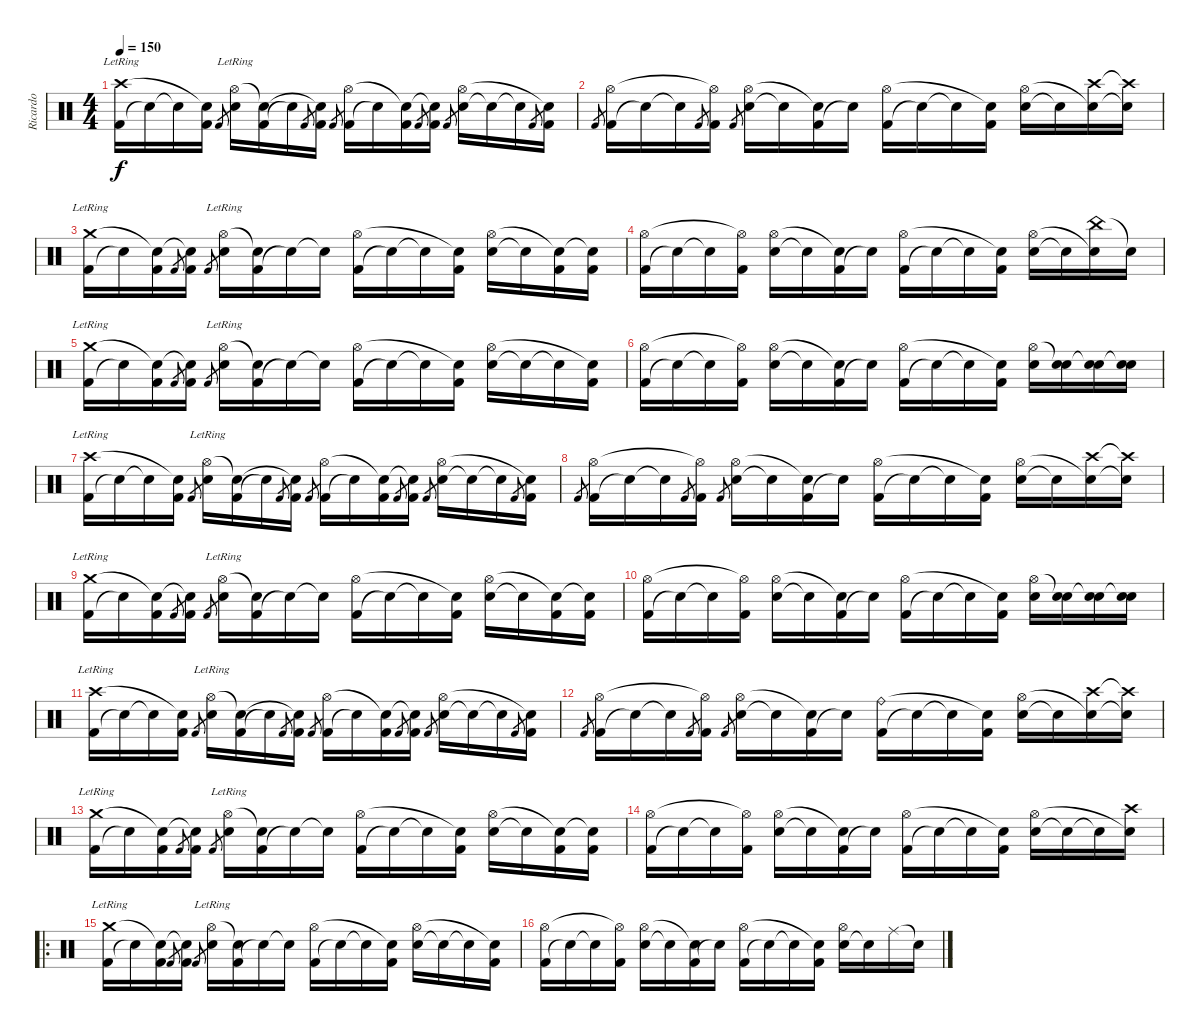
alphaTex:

\track ("Ricardo" "Ricardo") {instrument percussion}
\staff {score}
\articulation defaults
\ts (4 4)
\tempo 150
\clef neutral
\ks c
("Kick (hit) 2" "Crash high (hit)"{lr}).16{dy f} "Snare (hit)"{t}.16 "Snare (hit)"{t}.16 ("Kick (hit) 2" "Snare (hit)"{t}).16 "Kick (hit) 2".8{gr} ("Snare (hit) 2" "Hi-Hat (open)"{lr}).16 ("Kick (hit) 2" "Snare (hit)"{t}).16 "Snare (hit)"{t}.16 "Kick (hit) 2".8{gr} ("Kick (hit) 2" "Snare (hit)"{t}).16 "Kick (hit) 2".8{gr} ("Kick (hit) 2" "Hi-Hat (open)").16 "Snare (hit)"{t}.16 ("Kick (hit) 2" "Snare (hit)"{t}).16 "Kick (hit) 2".8{gr} ("Kick (hit) 2" "Snare (hit)"{t}).16 "Kick (hit) 2".8{gr} ("Snare (hit) 2" "Hi-Hat (open)").16 "Snare (hit)"{t}.16 "Snare (hit)"{t}.16 "Kick (hit) 2".8{gr} ("Kick (hit) 2" "Snare (hit)"{t}).16 |
"Kick (hit) 2".8{gr} ("Kick (hit) 2" "Hi-Hat (open)").16 "Snare (hit)"{t}.16 "Snare (hit)"{t}.16 "Kick (hit) 2".8{gr} ("Kick (hit) 2" "Hi-Hat (open)"{t}).16 "Kick (hit) 2".8{gr} ("Snare (hit) 2" "Hi-Hat (open)").16 "Snare (hit)"{t}.16 ("Kick (hit) 2" "Snare (hit)"{t}).16 "Snare (hit)"{t}.16 ("Kick (hit) 2" "Hi-Hat (open)").16 "Snare (hit)"{t}.16 "Snare (hit)"{t}.16 ("Kick (hit) 2" "Snare (hit)"{t}).16 ("Snare (hit) 2" "Hi-Hat (open)").16 "Snare (hit)"{t}.16 ("Crash high (hit)" "Snare (hit)"{t}).16 ("Crash high (hit)"{t} "Snare (hit)"{t}).16 |
("Kick (hit) 2" "Crash medium (hit)"{lr}).16 "Snare (hit)"{t}.16 ("Kick (hit) 2" "Snare (hit)"{t}).16 "Kick (hit) 2".8{gr} ("Kick (hit) 2" "Snare (hit)"{t}).16 "Kick (hit) 2".8{gr} ("Snare (hit) 2" "Hi-Hat (open)"{lr}).16 ("Kick (hit) 2" "Snare (hit)"{t}).16 "Snare (hit)"{t}.16 "Snare (hit)"{t}.16 ("Kick (hit) 2" "Hi-Hat (open)").16 "Snare (hit)"{t}.16 "Snare (hit)"{t}.16 ("Kick (hit) 2" "Snare (hit)"{t}).16 ("Snare (hit) 2" "Hi-Hat (open)").16 "Snare (hit)"{t}.16 ("Kick (hit) 2" "Snare (hit)"{t}).16 ("Kick (hit) 2" "Snare (hit)"{t}).16 |
("Kick (hit) 2" "Hi-Hat (open)").16 "Snare (hit)"{t}.16 "Snare (hit)"{t}.16 ("Kick (hit) 2" "Hi-Hat (open)"{t}).16 ("Snare (hit) 2" "Hi-Hat (open)").16 "Snare (hit)"{t}.16 ("Kick (hit) 2" "Snare (hit)"{t}).16 "Snare (hit)"{t}.16 ("Kick (hit) 2" "Hi-Hat (open)").16 "Snare (hit)"{t}.16 "Snare (hit)"{t}.16 ("Kick (hit) 2" "Snare (hit)"{t}).16 ("Snare (hit) 2" "Hi-Hat (open)").16 "Snare (hit)"{t}.16 ("China (hit)" "Snare (hit)"{t}).16 "Snare (hit)"{t}.16 |
("Kick (hit) 2" "Crash medium (hit)"{lr}).16 "Snare (hit)"{t}.16 ("Kick (hit) 2" "Snare (hit)"{t}).16 "Kick (hit) 2".8{gr} ("Kick (hit) 2" "Snare (hit)"{t}).16 "Kick (hit) 2".8{gr} ("Snare (hit) 2" "Hi-Hat (open)"{lr}).16 ("Kick (hit) 2" "Snare (hit)"{t}).16 "Snare (hit)"{t}.16 "Snare (hit)"{t}.16 ("Kick (hit) 2" "Hi-Hat (open)").16 "Snare (hit)"{t}.16 "Snare (hit)"{t}.16 ("Kick (hit) 2" "Snare (hit)"{t}).16 ("Snare (hit) 2" "Hi-Hat (open)").16 "Snare (hit)"{t}.16 "Snare (hit)"{t}.16 ("Kick (hit) 2" "Snare (hit)"{t}).16 |
("Kick (hit) 2" "Hi-Hat (open)").16 "Snare (hit)"{t}.16 "Snare (hit)"{t}.16 ("Kick (hit) 2" "Hi-Hat (open)"{t}).16 ("Snare (hit) 2" "Hi-Hat (open)").16 "Snare (hit)"{t}.16 ("Kick (hit) 2" "Snare (hit)"{t}).16 "Snare (hit)"{t}.16 ("Kick (hit) 2" "Hi-Hat (open)").16 "Snare (hit)"{t}.16 "Snare (hit)"{t}.16 ("Kick (hit) 2" "Snare (hit)"{t}).16 ("Snare (hit) 2" "Hi-Hat (open)").16 ("Snare (hit) 2" "Snare (hit)"{t}).16 ("Snare (hit) 2" "Snare (hit)"{t}).16 ("Snare (hit) 2" "Snare (hit)"{t}).16 |
("Kick (hit) 2" "Crash high (hit)"{lr}).16 "Snare (hit)"{t}.16 "Snare (hit)"{t}.16 ("Kick (hit) 2" "Snare (hit)"{t}).16 "Kick (hit) 2".8{gr} ("Snare (hit) 2" "Hi-Hat (open)"{lr}).16 ("Kick (hit) 2" "Snare (hit)"{t}).16 "Snare (hit)"{t}.16 "Kick (hit) 2".8{gr} ("Kick (hit) 2" "Snare (hit)"{t}).16 "Kick (hit) 2".8{gr} ("Kick (hit) 2" "Hi-Hat (open)").16 "Snare (hit)"{t}.16 ("Kick (hit) 2" "Snare (hit)"{t}).16 "Kick (hit) 2".8{gr} ("Kick (hit) 2" "Snare (hit)"{t}).16 "Kick (hit) 2".8{gr} ("Snare (hit) 2" "Hi-Hat (open)").16 "Snare (hit)"{t}.16 "Snare (hit)"{t}.16 "Kick (hit) 2".8{gr} ("Kick (hit) 2" "Snare (hit)"{t}).16 |
"Kick (hit) 2".8{gr} ("Kick (hit) 2" "Hi-Hat (open)").16 "Snare (hit)"{t}.16 "Snare (hit)"{t}.16 "Kick (hit) 2".8{gr} ("Kick (hit) 2" "Hi-Hat (open)"{t}).16 "Kick (hit) 2".8{gr} ("Snare (hit) 2" "Hi-Hat (open)").16 "Snare (hit)"{t}.16 ("Kick (hit) 2" "Snare (hit)"{t}).16 "Snare (hit)"{t}.16 ("Kick (hit) 2" "Hi-Hat (open)").16 "Snare (hit)"{t}.16 "Snare (hit)"{t}.16 ("Kick (hit) 2" "Snare (hit)"{t}).16 ("Snare (hit) 2" "Hi-Hat (open)").16 "Snare (hit)"{t}.16 ("Crash high (hit)" "Snare (hit)"{t}).16 ("Crash high (hit)"{t} "Snare (hit)"{t}).16 |
("Kick (hit) 2" "Crash medium (hit)"{lr}).16 "Snare (hit)"{t}.16 ("Kick (hit) 2" "Snare (hit)"{t}).16 "Kick (hit) 2".8{gr} ("Kick (hit) 2" "Snare (hit)"{t}).16 "Kick (hit) 2".8{gr} ("Snare (hit) 2" "Hi-Hat (open)"{lr}).16 ("Kick (hit) 2" "Snare (hit)"{t}).16 "Snare (hit)"{t}.16 "Snare (hit)"{t}.16 ("Kick (hit) 2" "Hi-Hat (open)").16 "Snare (hit)"{t}.16 "Snare (hit)"{t}.16 ("Kick (hit) 2" "Snare (hit)"{t}).16 ("Snare (hit) 2" "Hi-Hat (open)").16 "Snare (hit)"{t}.16 ("Kick (hit) 2" "Snare (hit)"{t}).16 ("Kick (hit) 2" "Snare (hit)"{t}).16 |
("Kick (hit) 2" "Hi-Hat (open)").16 "Snare (hit)"{t}.16 "Snare (hit)"{t}.16 ("Kick (hit) 2" "Hi-Hat (open)"{t}).16 ("Snare (hit) 2" "Hi-Hat (open)").16 "Snare (hit)"{t}.16 ("Kick (hit) 2" "Snare (hit)"{t}).16 "Snare (hit)"{t}.16 ("Kick (hit) 2" "Hi-Hat (open)").16 "Snare (hit)"{t}.16 "Snare (hit)"{t}.16 ("Kick (hit) 2" "Snare (hit)"{t}).16 ("Snare (hit) 2" "Hi-Hat (open)").16 ("Snare (hit) 2" "Snare (hit)"{t}).16 ("Snare (hit) 2" "Snare (hit)"{t}).16 ("Snare (hit) 2" "Snare (hit)"{t}).16 |
("Kick (hit) 2" "Crash high (hit)"{lr}).16 "Snare (hit)"{t}.16 "Snare (hit)"{t}.16 ("Kick (hit) 2" "Snare (hit)"{t}).16 "Kick (hit) 2".8{gr} ("Snare (hit) 2" "Hi-Hat (open)"{lr}).16 ("Kick (hit) 2" "Snare (hit)"{t}).16 "Snare (hit)"{t}.16 "Kick (hit) 2".8{gr} ("Kick (hit) 2" "Snare (hit)"{t}).16 "Kick (hit) 2".8{gr} ("Kick (hit) 2" "Hi-Hat (open)").16 "Snare (hit)"{t}.16 ("Kick (hit) 2" "Snare (hit)"{t}).16 "Kick (hit) 2".8{gr} ("Kick (hit) 2" "Snare (hit)"{t}).16 "Kick (hit) 2".8{gr} ("Snare (hit) 2" "Hi-Hat (open)").16 "Snare (hit)"{t}.16 "Snare (hit)"{t}.16 "Kick (hit) 2".8{gr} ("Kick (hit) 2" "Snare (hit)"{t}).16 |
"Kick (hit) 2".8{gr} ("Kick (hit) 2" "Hi-Hat (open)").16 "Snare (hit)"{t}.16 "Snare (hit)"{t}.16 "Kick (hit) 2".8{gr} ("Kick (hit) 2" "Hi-Hat (open)"{t}).16 "Kick (hit) 2".8{gr} ("Snare (hit) 2" "Hi-Hat (open)").16 "Snare (hit)"{t}.16 ("Kick (hit) 2" "Snare (hit)"{t}).16 "Snare (hit)"{t}.16 ("Kick (hit) 2" "Ride (bell)").16 "Snare (hit)"{t}.16 "Snare (hit)"{t}.16 ("Kick (hit) 2" "Snare (hit)"{t}).16 ("Snare (hit) 2" "Hi-Hat (open)").16 "Snare (hit)"{t}.16 ("Crash high (hit)" "Snare (hit)"{t}).16 ("Crash high (hit)"{t} "Snare (hit)"{t}).16 |
("Kick (hit) 2" "Crash medium (hit)"{lr}).16 "Snare (hit)"{t}.16 ("Kick (hit) 2" "Snare (hit)"{t}).16 "Kick (hit) 2".8{gr} ("Kick (hit) 2" "Snare (hit)"{t}).16 "Kick (hit) 2".8{gr} ("Snare (hit) 2" "Hi-Hat (open)"{lr}).16 ("Kick (hit) 2" "Snare (hit)"{t}).16 "Snare (hit)"{t}.16 "Snare (hit)"{t}.16 ("Kick (hit) 2" "Hi-Hat (open)").16 "Snare (hit)"{t}.16 "Snare (hit)"{t}.16 ("Kick (hit) 2" "Snare (hit)"{t}).16 ("Snare (hit) 2" "Hi-Hat (open)").16 "Snare (hit)"{t}.16 ("Kick (hit) 2" "Snare (hit)"{t}).16 ("Kick (hit) 2" "Snare (hit)"{t}).16 |
("Kick (hit) 2" "Hi-Hat (open)").16 "Snare (hit)"{t}.16 "Snare (hit)"{t}.16 ("Kick (hit) 2" "Hi-Hat (open)"{t}).16 ("Snare (hit) 2" "Hi-Hat (open)").16 "Snare (hit)"{t}.16 ("Kick (hit) 2" "Snare (hit)"{t}).16 "Snare (hit)"{t}.16 ("Kick (hit) 2" "Hi-Hat (open)").16 "Snare (hit)"{t}.16 "Snare (hit)"{t}.16 ("Kick (hit) 2" "Snare (hit)"{t}).16 ("Snare (hit) 2" "Hi-Hat (open)").16 "Snare (hit)"{t}.16 "Snare (hit)"{t}.16 ("Crash high (hit)" "Snare (hit)"{t}).16 |
\ro
("Kick (hit) 2" "Crash medium (hit)"{lr}).16 "Snare (hit)"{t}.16 ("Kick (hit) 2" "Snare (hit)"{t}).16 "Kick (hit) 2".8{gr} ("Kick (hit) 2" "Snare (hit)"{t}).16 "Kick (hit) 2".8{gr} ("Snare (hit) 2" "Hi-Hat (open)"{lr}).16 ("Kick (hit) 2" "Snare (hit)"{t}).16 "Snare (hit)"{t}.16 "Snare (hit)"{t}.16 ("Kick (hit) 2" "Hi-Hat (open)").16 "Snare (hit)"{t}.16 "Snare (hit)"{t}.16 ("Kick (hit) 2" "Snare (hit)"{t}).16 ("Snare (hit) 2" "Hi-Hat (open)").16 "Snare (hit)"{t}.16 "Snare (hit)"{t}.16 ("Kick (hit) 2" "Snare (hit)"{t}).16 |
("Kick (hit) 2" "Hi-Hat (open)").16 "Snare (hit)"{t}.16 "Snare (hit)"{t}.16 ("Kick (hit) 2" "Hi-Hat (open)"{t}).16 ("Snare (hit) 2" "Hi-Hat (open)").16 "Snare (hit)"{t}.16 ("Kick (hit) 2" "Snare (hit)"{t}).16 "Snare (hit)"{t}.16 ("Kick (hit) 2" "Hi-Hat (open)").16 "Snare (hit)"{t}.16 "Snare (hit)"{t}.16 ("Kick (hit) 2" "Snare (hit)"{t}).16 ("Snare (hit) 2" "Hi-Hat (open)").16 "Snare (hit)"{t}.16 "Ride (middle)".16 "Snare (hit)"{t}.16
